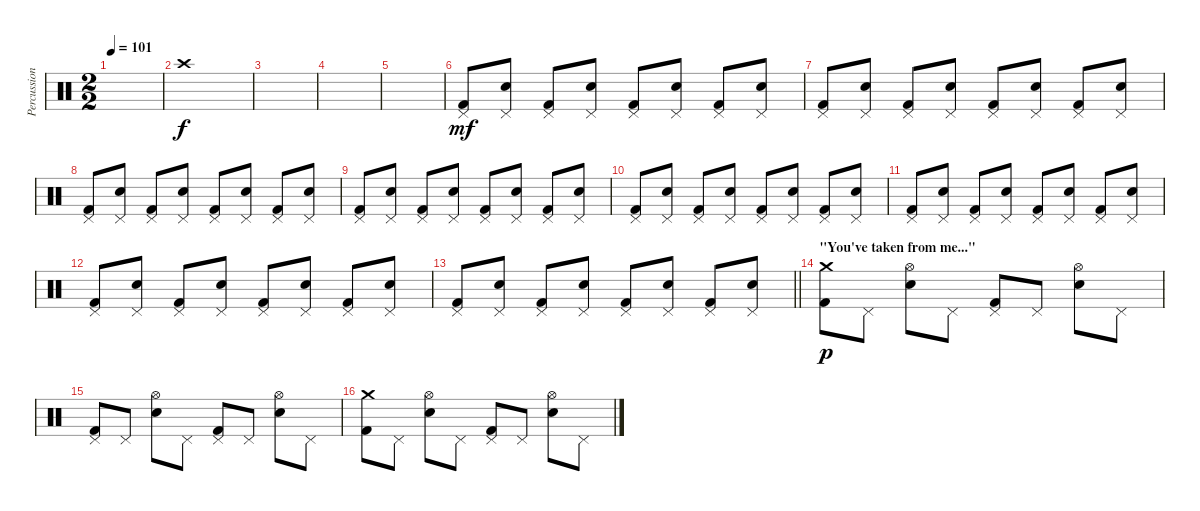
\track ("Percussions" "Percussion") {instrument percussion}
\staff {score}
\articulation defaults
\ts (2 2)
\tempo 101
\clef neutral
\ks c
|
"Crash high (hit)".1 |
|
|
|
("Kick (hit) 2" "Pedal Hi-Hat (hit)").8{dy mf} ("Snare (hit) 2" "Pedal Hi-Hat (hit)").8 ("Kick (hit) 2" "Pedal Hi-Hat (hit)").8 ("Snare (hit) 2" "Pedal Hi-Hat (hit)").8 ("Kick (hit) 2" "Pedal Hi-Hat (hit)").8 ("Snare (hit) 2" "Pedal Hi-Hat (hit)").8 ("Kick (hit) 2" "Pedal Hi-Hat (hit)").8 ("Snare (hit) 2" "Pedal Hi-Hat (hit)").8 |
("Kick (hit) 2" "Pedal Hi-Hat (hit)").8 ("Snare (hit) 2" "Pedal Hi-Hat (hit)").8 ("Kick (hit) 2" "Pedal Hi-Hat (hit)").8 ("Snare (hit) 2" "Pedal Hi-Hat (hit)").8 ("Kick (hit) 2" "Pedal Hi-Hat (hit)").8 ("Snare (hit) 2" "Pedal Hi-Hat (hit)").8 ("Kick (hit) 2" "Pedal Hi-Hat (hit)").8 ("Snare (hit) 2" "Pedal Hi-Hat (hit)").8 |
("Kick (hit) 2" "Pedal Hi-Hat (hit)").8 ("Snare (hit) 2" "Pedal Hi-Hat (hit)").8 ("Kick (hit) 2" "Pedal Hi-Hat (hit)").8 ("Snare (hit) 2" "Pedal Hi-Hat (hit)").8 ("Kick (hit) 2" "Pedal Hi-Hat (hit)").8 ("Snare (hit) 2" "Pedal Hi-Hat (hit)").8 ("Kick (hit) 2" "Pedal Hi-Hat (hit)").8 ("Snare (hit) 2" "Pedal Hi-Hat (hit)").8 |
("Kick (hit) 2" "Pedal Hi-Hat (hit)").8 ("Snare (hit) 2" "Pedal Hi-Hat (hit)").8 ("Kick (hit) 2" "Pedal Hi-Hat (hit)").8 ("Snare (hit) 2" "Pedal Hi-Hat (hit)").8 ("Kick (hit) 2" "Pedal Hi-Hat (hit)").8 ("Snare (hit) 2" "Pedal Hi-Hat (hit)").8 ("Kick (hit) 2" "Pedal Hi-Hat (hit)").8 ("Snare (hit) 2" "Pedal Hi-Hat (hit)").8 |
("Kick (hit) 2" "Pedal Hi-Hat (hit)").8 ("Snare (hit) 2" "Pedal Hi-Hat (hit)").8 ("Kick (hit) 2" "Pedal Hi-Hat (hit)").8 ("Snare (hit) 2" "Pedal Hi-Hat (hit)").8 ("Kick (hit) 2" "Pedal Hi-Hat (hit)").8 ("Snare (hit) 2" "Pedal Hi-Hat (hit)").8 ("Kick (hit) 2" "Pedal Hi-Hat (hit)").8 ("Snare (hit) 2" "Pedal Hi-Hat (hit)").8 |
("Kick (hit) 2" "Pedal Hi-Hat (hit)").8 ("Snare (hit) 2" "Pedal Hi-Hat (hit)").8 ("Kick (hit) 2" "Pedal Hi-Hat (hit)").8 ("Snare (hit) 2" "Pedal Hi-Hat (hit)").8 ("Kick (hit) 2" "Pedal Hi-Hat (hit)").8 ("Snare (hit) 2" "Pedal Hi-Hat (hit)").8 ("Kick (hit) 2" "Pedal Hi-Hat (hit)").8 ("Snare (hit) 2" "Pedal Hi-Hat (hit)").8 |
("Kick (hit) 2" "Pedal Hi-Hat (hit)").8 ("Snare (hit) 2" "Pedal Hi-Hat (hit)").8 ("Kick (hit) 2" "Pedal Hi-Hat (hit)").8 ("Snare (hit) 2" "Pedal Hi-Hat (hit)").8 ("Kick (hit) 2" "Pedal Hi-Hat (hit)").8 ("Snare (hit) 2" "Pedal Hi-Hat (hit)").8 ("Kick (hit) 2" "Pedal Hi-Hat (hit)").8 ("Snare (hit) 2" "Pedal Hi-Hat (hit)").8 |
\barLineRight lightlight
("Kick (hit) 2" "Pedal Hi-Hat (hit)").8 ("Snare (hit) 2" "Pedal Hi-Hat (hit)").8 ("Kick (hit) 2" "Pedal Hi-Hat (hit)").8 ("Snare (hit) 2" "Pedal Hi-Hat (hit)").8 ("Kick (hit) 2" "Pedal Hi-Hat (hit)").8 ("Snare (hit) 2" "Pedal Hi-Hat (hit)").8 ("Kick (hit) 2" "Pedal Hi-Hat (hit)").8 ("Snare (hit) 2" "Pedal Hi-Hat (hit)").8 |
\section ("" "\"You've taken from me...\"")
("Kick (hit) 2" "Crash medium (hit)").8{dy p} "Pedal Hi-Hat (hit)".8 ("Snare (hit) 2" "Hi-Hat (open)").8 "Pedal Hi-Hat (hit)".8 ("Kick (hit) 2" "Pedal Hi-Hat (hit)").8 "Pedal Hi-Hat (hit)".8 ("Snare (hit) 2" "Hi-Hat (open)").8 "Pedal Hi-Hat (hit)".8 |
("Kick (hit) 2" "Pedal Hi-Hat (hit)").8 "Pedal Hi-Hat (hit)".8 ("Snare (hit) 2" "Hi-Hat (open)").8 "Pedal Hi-Hat (hit)".8 ("Kick (hit) 2" "Pedal Hi-Hat (hit)").8 "Pedal Hi-Hat (hit)".8 ("Snare (hit) 2" "Hi-Hat (open)").8 "Pedal Hi-Hat (hit)".8 |
("Kick (hit) 2" "Crash medium (hit)").8 "Pedal Hi-Hat (hit)".8 ("Snare (hit) 2" "Hi-Hat (open)").8 "Pedal Hi-Hat (hit)".8 ("Kick (hit) 2" "Pedal Hi-Hat (hit)").8 "Pedal Hi-Hat (hit)".8 ("Snare (hit) 2" "Hi-Hat (open)").8 "Pedal Hi-Hat (hit)".8
